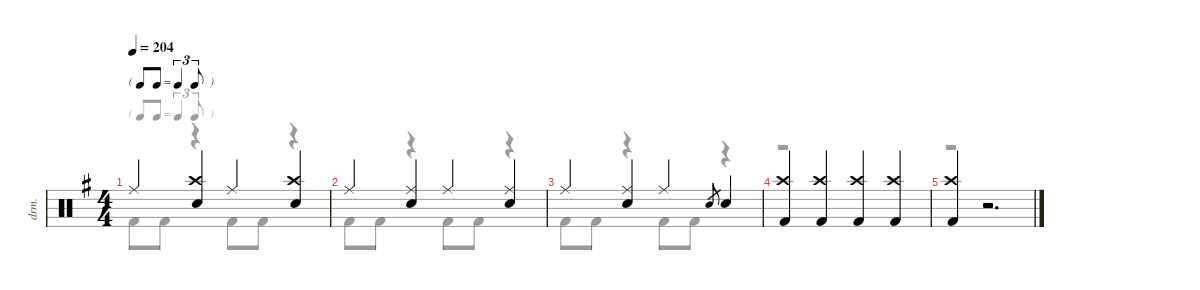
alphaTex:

\defaultSystemsLayout 4
\hideDynamics
\bracketExtendMode nobrackets
\otherSystemsTrackNameOrientation horizontal
\track ("Lars Ulrich" "drm.") {defaultSystemsLayout 8 instrument percussion}
\staff {score}
\articulation defaults
\voice
\ts (4 4)
\tf triplet8th
\tempo 204
\clef neutral
\ks eminor "Ride (middle)"{acc forcenatural}.4{dy f beam Up}
("Crash high (hit)"{acc forcenatural} "Snare (hit) 2"{acc forcenatural}).4{beam Up} "Ride (middle)"{acc forcenatural}.4{beam Up} ("Crash high (hit)"{acc forcenatural} "Snare (hit) 2"{acc forcenatural}).4{beam Up} |
"Ride (middle)"{acc forcenatural}.4{beam Up} ("Ride (middle)"{acc forcenatural} "Snare (hit) 2"{acc forcenatural}).4{beam Up} "Ride (middle)"{acc forcenatural}.4{beam Up} ("Ride (middle)"{acc forcenatural} "Snare (hit) 2"{acc forcenatural}).4{beam Up} |
"Ride (middle)"{acc forcenatural}.4{beam Up} ("Ride (middle)"{acc forcenatural} "Snare (hit) 2"{acc forcenatural}).4{beam Up} "Ride (middle)"{acc forcenatural}.4{beam Up} "Snare (hit) 2"{acc forcenatural}.8{gr dy mf beam Up} "Snare (hit) 2"{acc forcenatural}.4{dy f beam Up} |
("Crash high (hit)"{acc forcenatural} "Kick (hit) 2"{acc forcenatural}).4{beam Up} ("Crash high (hit)"{acc forcenatural} "Kick (hit) 2"{acc forcenatural}).4{beam Up} ("Crash high (hit)"{acc forcenatural} "Kick (hit) 2"{acc forcenatural}).4{beam Up} ("Crash high (hit)"{acc forcenatural} "Kick (hit) 2"{acc forcenatural}).4{beam Up} |
("Crash high (hit)"{acc forcenatural} "Kick (hit) 2"{acc forcenatural}).4{beam Up} r.2{d beam Up}
\voice
\clef neutral
\ottava regular
\simile none
\ks eminor "Kick (hit) 2"{acc forcenatural}.8{dy f beam Down} "Kick (hit) 2"{acc forcenatural}.8{beam Down}
r.4{beam Down} "Kick (hit) 2"{acc forcenatural}.8{beam Down} "Kick (hit) 2"{acc forcenatural}.8{beam Down} r.4{beam Down} |
"Kick (hit) 2"{acc forcenatural}.8{beam Down} "Kick (hit) 2"{acc forcenatural}.8{beam Down} r.4{beam Down} "Kick (hit) 2"{acc forcenatural}.8{beam Down} "Kick (hit) 2"{acc forcenatural}.8{beam Down} r.4{beam Down} |
"Kick (hit) 2"{acc forcenatural}.8{beam Down} "Kick (hit) 2"{acc forcenatural}.8{beam Down} r.4{beam Down} "Kick (hit) 2"{acc forcenatural}.8{beam Down} "Kick (hit) 2"{acc forcenatural}.8{beam Down} r.4{beam Down} |
r.1{beam Down} |
r.1{beam Down}
